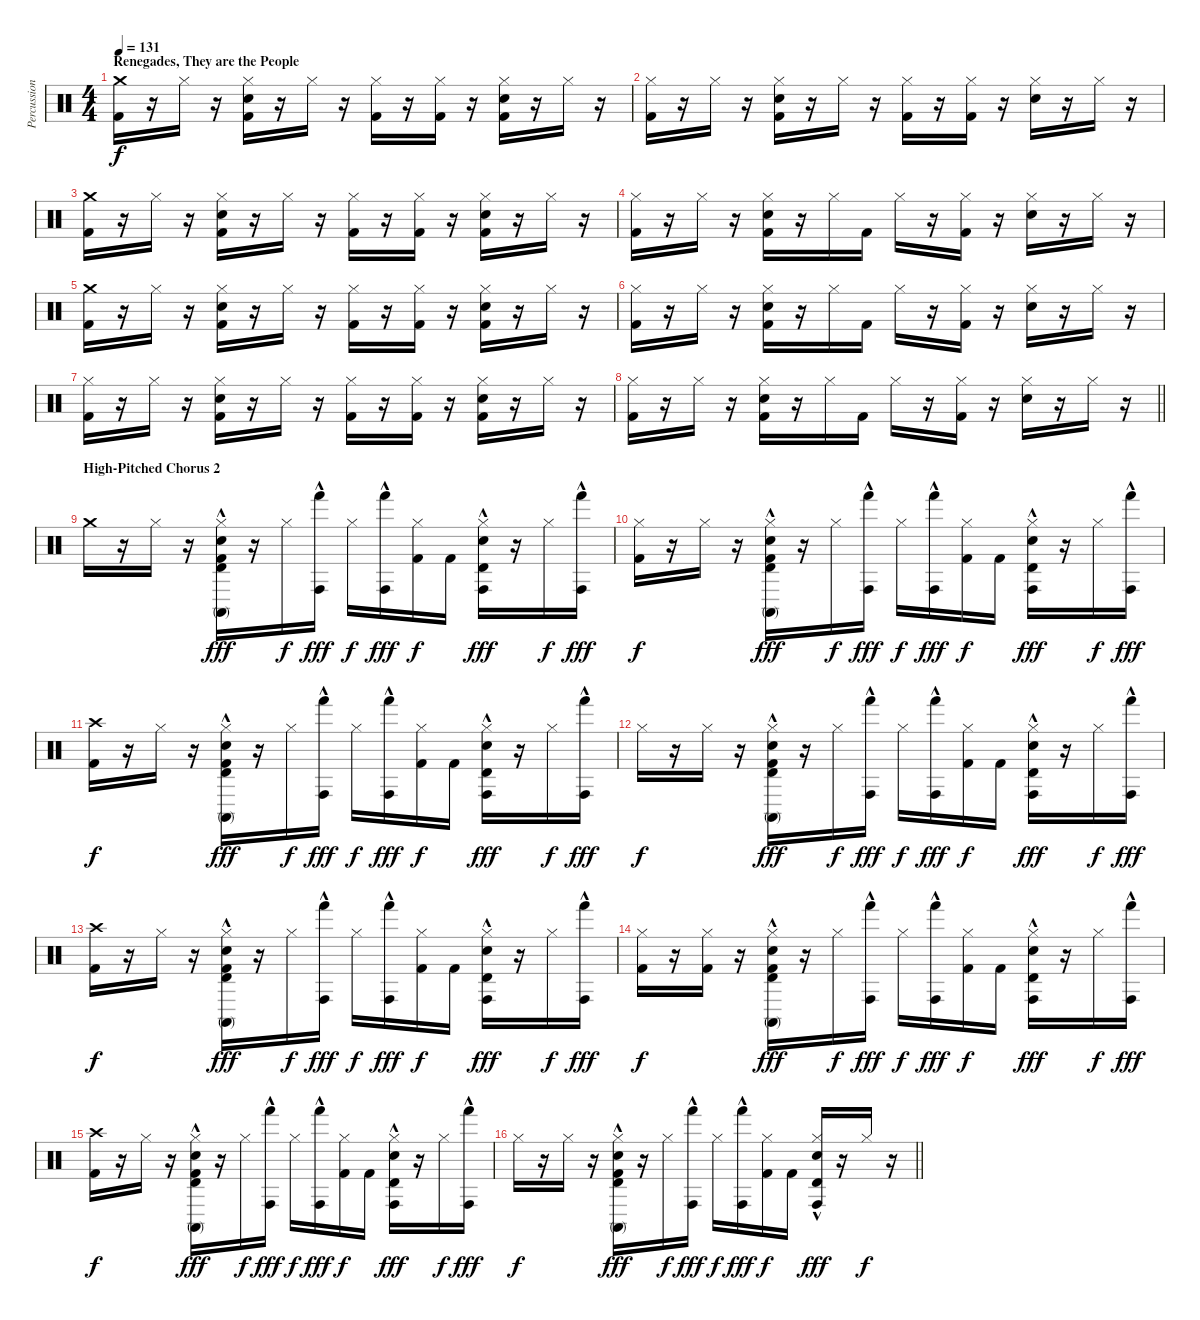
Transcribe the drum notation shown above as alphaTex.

\track ("Percussion" "Percussion") {instrument percussion}
\staff {score}
\articulation defaults
\ts (4 4)
\section ("" "Renegades, They are the People")
\tempo 131
\clef neutral
\ks c
("Crash medium (hit)" "Kick (hit) 2").16{dy f} r.16 "Hi-Hat (closed)".16 r.16 ("Hi-Hat (closed)" "Electric Snare (hit)" "Kick (hit) 2").16 r.16 "Hi-Hat (closed)".16 r.16 ("Hi-Hat (closed)" "Kick (hit) 2").16 r.16 ("Hi-Hat (closed)" "Kick (hit) 2").16 r.16 ("Hi-Hat (closed)" "Electric Snare (hit)" "Kick (hit) 2").16 r.16 "Hi-Hat (closed)".16 r.16 |
("Hi-Hat (closed)" "Kick (hit) 2").16 r.16 "Hi-Hat (closed)".16 r.16 ("Hi-Hat (closed)" "Electric Snare (hit)" "Kick (hit) 2").16 r.16 "Hi-Hat (closed)".16 r.16 ("Hi-Hat (closed)" "Kick (hit) 2").16 r.16 ("Hi-Hat (closed)" "Kick (hit) 2").16 r.16 ("Hi-Hat (closed)" "Electric Snare (hit)").16 r.16 "Hi-Hat (closed)".16 r.16 |
("Crash medium (hit)" "Kick (hit) 2").16 r.16 "Hi-Hat (closed)".16 r.16 ("Hi-Hat (closed)" "Electric Snare (hit)" "Kick (hit) 2").16 r.16 "Hi-Hat (closed)".16 r.16 ("Hi-Hat (closed)" "Kick (hit) 2").16 r.16 ("Hi-Hat (closed)" "Kick (hit) 2").16 r.16 ("Hi-Hat (closed)" "Electric Snare (hit)" "Kick (hit) 2").16 r.16 "Hi-Hat (closed)".16 r.16 |
("Hi-Hat (closed)" "Kick (hit) 2").16 r.16 "Hi-Hat (closed)".16 r.16 ("Hi-Hat (closed)" "Electric Snare (hit)" "Kick (hit) 2").16 r.16 "Hi-Hat (closed)".16 "Kick (hit) 2".16 "Hi-Hat (closed)".16 r.16 ("Hi-Hat (closed)" "Kick (hit) 2").16 r.16 ("Hi-Hat (closed)" "Electric Snare (hit)").16 r.16 "Hi-Hat (closed)".16 r.16 |
("Crash medium (hit)" "Kick (hit) 2").16 r.16 "Hi-Hat (closed)".16 r.16 ("Hi-Hat (closed)" "Electric Snare (hit)" "Kick (hit) 2").16 r.16 "Hi-Hat (closed)".16 r.16 ("Hi-Hat (closed)" "Kick (hit) 2").16 r.16 ("Hi-Hat (closed)" "Kick (hit) 2").16 r.16 ("Hi-Hat (closed)" "Electric Snare (hit)" "Kick (hit) 2").16 r.16 "Hi-Hat (closed)".16 r.16 |
("Hi-Hat (closed)" "Kick (hit) 2").16 r.16 "Hi-Hat (closed)".16 r.16 ("Hi-Hat (closed)" "Electric Snare (hit)" "Kick (hit) 2").16 r.16 "Hi-Hat (closed)".16 "Kick (hit) 2".16 "Hi-Hat (closed)".16 r.16 ("Hi-Hat (closed)" "Kick (hit) 2").16 r.16 ("Hi-Hat (closed)" "Electric Snare (hit)").16 r.16 "Hi-Hat (closed)".16 r.16 |
("Hi-Hat (closed)" "Kick (hit) 2").16 r.16 "Hi-Hat (closed)".16 r.16 ("Hi-Hat (closed)" "Electric Snare (hit)" "Kick (hit) 2").16 r.16 "Hi-Hat (closed)".16 r.16 ("Hi-Hat (closed)" "Kick (hit) 2").16 r.16 ("Hi-Hat (closed)" "Kick (hit) 2").16 r.16 ("Hi-Hat (closed)" "Electric Snare (hit)" "Kick (hit) 2").16 r.16 "Hi-Hat (closed)".16 r.16 |
\barLineRight lightlight
("Hi-Hat (closed)" "Kick (hit) 2").16 r.16 "Hi-Hat (closed)".16 r.16 ("Hi-Hat (closed)" "Electric Snare (hit)" "Kick (hit) 2").16 r.16 "Hi-Hat (closed)".16 "Kick (hit) 2".16 "Hi-Hat (closed)".16 r.16 ("Hi-Hat (closed)" "Kick (hit) 2").16 r.16 ("Hi-Hat (closed)" "Electric Snare (hit)").16 r.16 "Hi-Hat (closed)".16 r.16 |
\section ("" "High-Pitched Chorus 2")
"Crash medium (hit)".16 r.16 "Hi-Hat (closed)".16 r.16 ("Hi-Hat (closed)" "Conga high (mute)"{hac} "Timbale high (hit)" "Electric Snare (hit)" "Kick (hit) 2").16{dy fff} r.16 "Hi-Hat (closed)".16{dy f} ("Conga high (hit)"{hac} "Hand (hit)"{hac}).16{dy fff} "Hi-Hat (closed)".16{dy f} ("Conga high (hit)"{hac} "Hand (hit)"{hac}).16{dy fff} ("Hi-Hat (closed)" "Kick (hit) 2").16{dy f} "Kick (hit) 2".16 ("Hi-Hat (closed)" "Conga high (hit)"{hac} "Timbale high (hit)" "Electric Snare (hit)").16{dy fff} r.16 "Hi-Hat (closed)".16{dy f} ("Conga high (hit)"{hac} "Hand (hit)"{hac}).16{dy fff} |
("Hi-Hat (closed)" "Kick (hit) 2").16{dy f} r.16 "Hi-Hat (closed)".16 r.16 ("Hi-Hat (closed)" "Conga high (mute)"{hac} "Timbale high (hit)" "Electric Snare (hit)" "Kick (hit) 2").16{dy fff} r.16 "Hi-Hat (closed)".16{dy f} ("Conga high (hit)"{hac} "Hand (hit)"{hac}).16{dy fff} "Hi-Hat (closed)".16{dy f} ("Conga high (hit)"{hac} "Hand (hit)"{hac}).16{dy fff} ("Hi-Hat (closed)" "Kick (hit) 2").16{dy f} "Kick (hit) 2".16 ("Hi-Hat (closed)" "Conga high (hit)"{hac} "Timbale high (hit)" "Electric Snare (hit)").16{dy fff} r.16 "Hi-Hat (closed)".16{dy f} ("Conga high (hit)"{hac} "Hand (hit)"{hac}).16{dy fff} |
("Crash high (hit)" "Kick (hit) 2").16{dy f} r.16 "Hi-Hat (closed)".16 r.16 ("Hi-Hat (closed)" "Conga high (mute)"{hac} "Timbale high (hit)" "Electric Snare (hit)" "Kick (hit) 2").16{dy fff} r.16 "Hi-Hat (closed)".16{dy f} ("Conga high (hit)"{hac} "Hand (hit)"{hac}).16{dy fff} "Hi-Hat (closed)".16{dy f} ("Conga high (hit)"{hac} "Hand (hit)"{hac}).16{dy fff} ("Hi-Hat (closed)" "Kick (hit) 2").16{dy f} "Kick (hit) 2".16 ("Hi-Hat (closed)" "Conga high (hit)"{hac} "Timbale high (hit)" "Electric Snare (hit)").16{dy fff} r.16 "Hi-Hat (closed)".16{dy f} ("Hand (hit)"{hac} "Conga high (hit)"{hac}).16{dy fff} |
"Hi-Hat (closed)".16{dy f} r.16 "Hi-Hat (closed)".16 r.16 ("Hi-Hat (closed)" "Conga high (mute)"{hac} "Timbale high (hit)" "Electric Snare (hit)" "Kick (hit) 2").16{dy fff} r.16 "Hi-Hat (closed)".16{dy f} ("Conga high (hit)"{hac} "Hand (hit)"{hac}).16{dy fff} "Hi-Hat (closed)".16{dy f} ("Conga high (hit)"{hac} "Hand (hit)"{hac}).16{dy fff} ("Hi-Hat (closed)" "Kick (hit) 2").16{dy f} "Kick (hit) 2".16 ("Hi-Hat (closed)" "Conga high (hit)"{hac} "Timbale high (hit)" "Electric Snare (hit)").16{dy fff} r.16 "Hi-Hat (closed)".16{dy f} ("Conga high (hit)"{hac} "Hand (hit)"{hac}).16{dy fff} |
("Crash high (hit)" "Kick (hit) 2").16{dy f} r.16 "Hi-Hat (closed)".16 r.16 ("Hi-Hat (closed)" "Conga high (mute)"{hac} "Timbale high (hit)" "Electric Snare (hit)" "Kick (hit) 2").16{dy fff} r.16 "Hi-Hat (closed)".16{dy f} ("Conga high (hit)"{hac} "Hand (hit)"{hac}).16{dy fff} "Hi-Hat (closed)".16{dy f} ("Conga high (hit)"{hac} "Hand (hit)"{hac}).16{dy fff} ("Hi-Hat (closed)" "Kick (hit) 2").16{dy f} "Kick (hit) 2".16 ("Hi-Hat (closed)" "Conga high (hit)"{hac} "Timbale high (hit)" "Electric Snare (hit)").16{dy fff} r.16 "Hi-Hat (closed)".16{dy f} ("Conga high (hit)"{hac} "Hand (hit)"{hac}).16{dy fff} |
("Hi-Hat (closed)" "Kick (hit) 2").16{dy f} r.16 ("Hi-Hat (closed)" "Kick (hit) 2").16 r.16 ("Hi-Hat (closed)" "Conga high (mute)"{hac} "Timbale high (hit)" "Electric Snare (hit)" "Kick (hit) 2").16{dy fff} r.16 "Hi-Hat (closed)".16{dy f} ("Conga high (hit)"{hac} "Hand (hit)"{hac}).16{dy fff} "Hi-Hat (closed)".16{dy f} ("Conga high (hit)"{hac} "Hand (hit)"{hac}).16{dy fff} ("Hi-Hat (closed)" "Kick (hit) 2").16{dy f} "Kick (hit) 2".16 ("Hi-Hat (closed)" "Conga high (hit)"{hac} "Timbale high (hit)" "Electric Snare (hit)").16{dy fff} r.16 "Hi-Hat (closed)".16{dy f} ("Conga high (hit)"{hac} "Hand (hit)"{hac}).16{dy fff} |
("Crash high (hit)" "Kick (hit) 2").16{dy f} r.16 "Hi-Hat (closed)".16 r.16 ("Hi-Hat (closed)" "Conga high (mute)"{hac} "Timbale high (hit)" "Electric Snare (hit)" "Kick (hit) 2").16{dy fff} r.16 "Hi-Hat (closed)".16{dy f} ("Conga high (hit)"{hac} "Hand (hit)"{hac}).16{dy fff} "Hi-Hat (closed)".16{dy f} ("Conga high (hit)"{hac} "Hand (hit)"{hac}).16{dy fff} ("Hi-Hat (closed)" "Kick (hit) 2").16{dy f} "Kick (hit) 2".16 ("Hi-Hat (closed)" "Conga high (hit)"{hac} "Timbale high (hit)" "Electric Snare (hit)").16{dy fff} r.16 "Hi-Hat (closed)".16{dy f} ("Conga high (hit)"{hac} "Hand (hit)"{hac}).16{dy fff} |
\barLineRight lightlight "Hi-Hat (closed)".16{dy f}
r.16 "Hi-Hat (closed)".16 r.16 ("Hi-Hat (closed)" "Conga high (mute)"{hac} "Timbale high (hit)" "Electric Snare (hit)" "Kick (hit) 2").16{dy fff} r.16 "Hi-Hat (closed)".16{dy f} ("Conga high (hit)"{hac} "Hand (hit)"{hac}).16{dy fff} "Hi-Hat (closed)".16{dy f} ("Conga high (hit)"{hac} "Hand (hit)"{hac}).16{dy fff} ("Hi-Hat (closed)" "Kick (hit) 2").16{dy f} "Kick (hit) 2".16 ("Hi-Hat (closed)" "Conga high (hit)"{hac} "Timbale high (hit)" "Electric Snare (hit)").16{dy fff} r.16 "Hi-Hat (closed)".16{dy f} r.16
